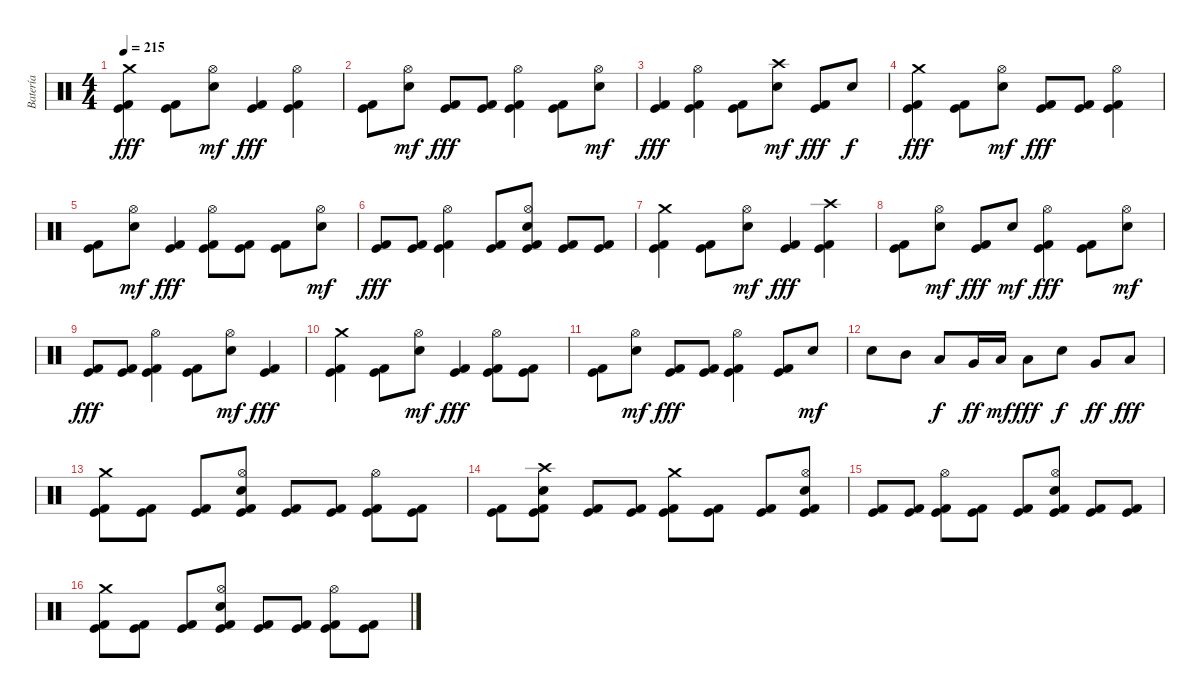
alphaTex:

\track ("Batería" "Batería") {instrument percussion}
\staff {score}
\articulation defaults
\ts (4 4)
\tempo 215
\clef neutral
\ks c
("Crash medium (hit)" "Kick (hit) 2" "Kick (hit)").4{dy fff} ("Kick (hit) 2" "Kick (hit)").8 ("Hi-Hat (open)" "Electric Snare (hit)").8{dy mf} ("Kick (hit) 2" "Kick (hit)").4{dy fff} ("Hi-Hat (open)" "Kick (hit) 2" "Kick (hit)").4 |
("Kick (hit) 2" "Kick (hit)").8 ("Hi-Hat (open)" "Electric Snare (hit)").8{dy mf} ("Kick (hit) 2" "Kick (hit)").8{dy fff} ("Kick (hit) 2" "Kick (hit)").8 ("Hi-Hat (open)" "Kick (hit) 2" "Kick (hit)").4 ("Kick (hit) 2" "Kick (hit)").8 ("Hi-Hat (open)" "Electric Snare (hit)").8{dy mf} |
("Kick (hit) 2" "Kick (hit)").4{dy fff} ("Hi-Hat (open)" "Kick (hit) 2" "Kick (hit)").4 ("Kick (hit) 2" "Kick (hit)").8 ("Crash high (hit)" "Electric Snare (hit)").8{dy mf} ("Kick (hit) 2" "Kick (hit)").8{dy fff} "Electric Snare (hit)".8{dy f} |
("Crash medium (hit)" "Kick (hit) 2" "Kick (hit)").4{dy fff} ("Kick (hit) 2" "Kick (hit)").8 ("Hi-Hat (open)" "Electric Snare (hit)").8{dy mf} ("Kick (hit) 2" "Kick (hit)").8{dy fff} ("Kick (hit) 2" "Kick (hit)").8 ("Hi-Hat (open)" "Kick (hit) 2" "Kick (hit)").4 |
("Kick (hit) 2" "Kick (hit)").8 ("Hi-Hat (open)" "Electric Snare (hit)").8{dy mf} ("Kick (hit) 2" "Kick (hit)").4{dy fff} ("Hi-Hat (open)" "Kick (hit) 2" "Kick (hit)").8 ("Kick (hit) 2" "Kick (hit)").8 ("Kick (hit) 2" "Kick (hit)").8 ("Hi-Hat (open)" "Electric Snare (hit)").8{dy mf} |
("Kick (hit) 2" "Kick (hit)").8{dy fff} ("Kick (hit) 2" "Kick (hit)").8 ("Hi-Hat (open)" "Kick (hit) 2" "Kick (hit)").4 ("Kick (hit) 2" "Kick (hit)").8 ("Hi-Hat (open)" "Electric Snare (hit)" "Kick (hit) 2" "Kick (hit)").8 ("Kick (hit) 2" "Kick (hit)").8 ("Kick (hit) 2" "Kick (hit)").8 |
("Crash medium (hit)" "Kick (hit) 2" "Kick (hit)").4 ("Kick (hit) 2" "Kick (hit)").8 ("Hi-Hat (open)" "Electric Snare (hit)").8{dy mf} ("Kick (hit) 2" "Kick (hit)").4{dy fff} ("Crash high (hit)" "Kick (hit) 2" "Kick (hit)").4 |
("Kick (hit) 2" "Kick (hit)").8 ("Hi-Hat (open)" "Electric Snare (hit)").8{dy mf} ("Kick (hit) 2" "Kick (hit)").8{dy fff} "Electric Snare (hit)".8{dy mf} ("Hi-Hat (open)" "Kick (hit) 2" "Kick (hit)").4{dy fff} ("Kick (hit) 2" "Kick (hit)").8 ("Hi-Hat (open)" "Electric Snare (hit)").8{dy mf} |
("Kick (hit) 2" "Kick (hit)").8{dy fff} ("Kick (hit) 2" "Kick (hit)").8 ("Hi-Hat (open)" "Kick (hit) 2" "Kick (hit)").4 ("Kick (hit) 2" "Kick (hit)").8 ("Hi-Hat (open)" "Electric Snare (hit)").8{dy mf} ("Kick (hit) 2" "Kick (hit)").4{dy fff} |
("Crash medium (hit)" "Kick (hit) 2" "Kick (hit)").4 ("Kick (hit) 2" "Kick (hit)").8 ("Hi-Hat (open)" "Electric Snare (hit)").8{dy mf} ("Kick (hit) 2" "Kick (hit)").4{dy fff} ("Hi-Hat (open)" "Kick (hit) 2" "Kick (hit)").8 ("Kick (hit) 2" "Kick (hit)").8 |
("Kick (hit) 2" "Kick (hit)").8 ("Hi-Hat (open)" "Electric Snare (hit)").8{dy mf} ("Kick (hit) 2" "Kick (hit)").8{dy fff} ("Kick (hit) 2" "Kick (hit)").8 ("Hi-Hat (open)" "Kick (hit) 2" "Kick (hit)").4 ("Kick (hit) 2" "Kick (hit)").8 "Electric Snare (hit)".8{dy mf} |
"Electric Snare (hit)".8 "Mid Tom (hit)".8 "Low Tom (hit)".8{dy f} "Very Low Tom (hit)".16{dy ff} "Low Floor Tom (hit)".16{dy mf} "Low Floor Tom (hit)".8{dy fff} "Electric Snare (hit)".8{dy f} "Very Low Tom (hit)".8{dy ff} "Low Floor Tom (hit)".8{dy fff} |
("Crash medium (hit)" "Kick (hit) 2" "Kick (hit)").8 ("Kick (hit) 2" "Kick (hit)").8 ("Kick (hit) 2" "Kick (hit)").8 ("Hi-Hat (open)" "Electric Snare (hit)" "Kick (hit) 2" "Kick (hit)").8 ("Kick (hit) 2" "Kick (hit)").8 ("Kick (hit) 2" "Kick (hit)").8 ("Hi-Hat (open)" "Kick (hit) 2" "Kick (hit)").8 ("Kick (hit) 2" "Kick (hit)").8 |
("Kick (hit) 2" "Kick (hit)").8 ("Crash high (hit)" "Electric Snare (hit)" "Kick (hit) 2" "Kick (hit)").8 ("Kick (hit) 2" "Kick (hit)").8 ("Kick (hit) 2" "Kick (hit)").8 ("Crash medium (hit)" "Kick (hit) 2" "Kick (hit)").8 ("Kick (hit) 2" "Kick (hit)").8 ("Kick (hit) 2" "Kick (hit)").8 ("Hi-Hat (open)" "Electric Snare (hit)" "Kick (hit) 2" "Kick (hit)").8 |
("Kick (hit) 2" "Kick (hit)").8 ("Kick (hit) 2" "Kick (hit)").8 ("Hi-Hat (open)" "Kick (hit) 2" "Kick (hit)").8 ("Kick (hit) 2" "Kick (hit)").8 ("Kick (hit) 2" "Kick (hit)").8 ("Hi-Hat (open)" "Electric Snare (hit)" "Kick (hit) 2" "Kick (hit)").8 ("Kick (hit) 2" "Kick (hit)").8 ("Kick (hit) 2" "Kick (hit)").8 |
("Crash medium (hit)" "Kick (hit) 2" "Kick (hit)").8 ("Kick (hit) 2" "Kick (hit)").8 ("Kick (hit) 2" "Kick (hit)").8 ("Hi-Hat (open)" "Electric Snare (hit)" "Kick (hit) 2" "Kick (hit)").8 ("Kick (hit) 2" "Kick (hit)").8 ("Kick (hit) 2" "Kick (hit)").8 ("Hi-Hat (open)" "Kick (hit) 2" "Kick (hit)").8 ("Kick (hit) 2" "Kick (hit)").8
